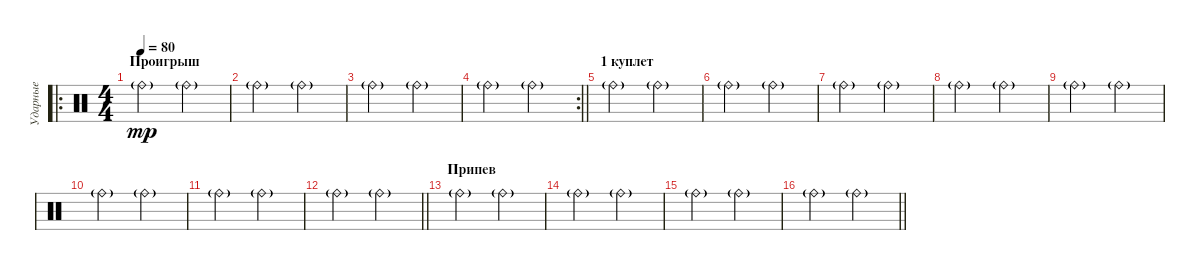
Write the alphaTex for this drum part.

\track ("Ударные" "Ударные") {instrument percussion}
\staff {score}
\articulation defaults
\ro
\ts (4 4)
\section ("" "Проигрыш")
\tempo 80
\clef neutral
\ks c "Ride (bell)"{g}.2{dy mp} "Ride (bell)"{g}.2
|
"Ride (bell)"{g}.2 "Ride (bell)"{g}.2 |
"Ride (bell)"{g}.2 "Ride (bell)"{g}.2 |
\rc 2
\barLineRight lightlight "Ride (bell)"{g}.2 "Ride (bell)"{g}.2
|
\section ("" "1 куплет")
"Ride (bell)"{g}.2 "Ride (bell)"{g}.2 |
"Ride (bell)"{g}.2 "Ride (bell)"{g}.2 |
"Ride (bell)"{g}.2 "Ride (bell)"{g}.2 |
"Ride (bell)"{g}.2 "Ride (bell)"{g}.2 |
"Ride (bell)"{g}.2 "Ride (bell)"{g}.2 |
"Ride (bell)"{g}.2 "Ride (bell)"{g}.2 |
"Ride (bell)"{g}.2 "Ride (bell)"{g}.2 |
\barLineRight lightlight "Ride (bell)"{g}.2 "Ride (bell)"{g}.2
|
\section ("" "Припев")
"Ride (bell)"{g}.2 "Ride (bell)"{g}.2 |
"Ride (bell)"{g}.2 "Ride (bell)"{g}.2 |
"Ride (bell)"{g}.2 "Ride (bell)"{g}.2 |
\barLineRight lightlight "Ride (bell)"{g}.2 "Ride (bell)"{g}.2
